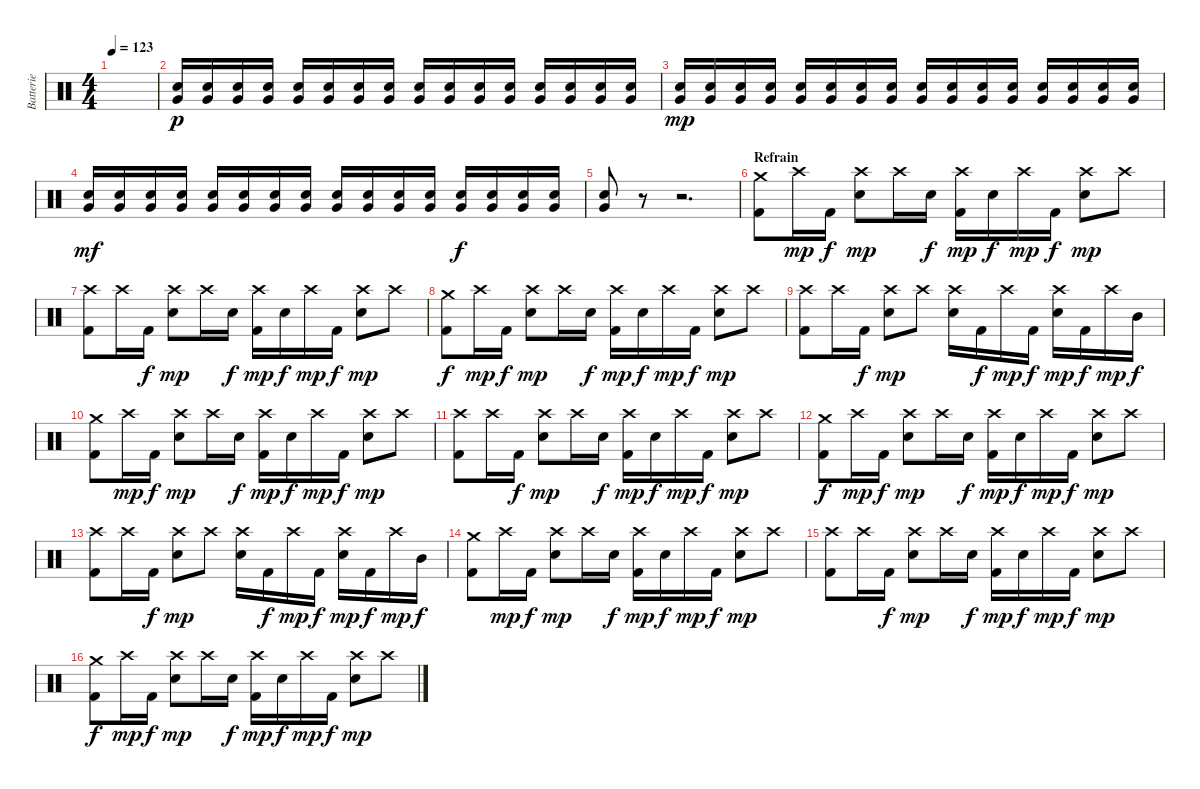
\track ("Batterie" "Batterie") {instrument percussion}
\staff {score}
\articulation defaults
\ts (4 4)
\tempo 123
\clef neutral
\ks c
|
("Snare (hit) 2" "Very Low Tom (hit)").16{dy p} ("Snare (hit) 2" "Very Low Tom (hit)").16 ("Snare (hit) 2" "Very Low Tom (hit)").16 ("Snare (hit) 2" "Very Low Tom (hit)").16 ("Snare (hit) 2" "Very Low Tom (hit)").16 ("Snare (hit) 2" "Very Low Tom (hit)").16 ("Snare (hit) 2" "Very Low Tom (hit)").16 ("Snare (hit) 2" "Very Low Tom (hit)").16 ("Snare (hit) 2" "Very Low Tom (hit)").16 ("Snare (hit) 2" "Very Low Tom (hit)").16 ("Snare (hit) 2" "Very Low Tom (hit)").16 ("Snare (hit) 2" "Very Low Tom (hit)").16 ("Snare (hit) 2" "Very Low Tom (hit)").16 ("Snare (hit) 2" "Very Low Tom (hit)").16 ("Snare (hit) 2" "Very Low Tom (hit)").16 ("Snare (hit) 2" "Very Low Tom (hit)").16 |
("Snare (hit) 2" "Very Low Tom (hit)").16{dy mp} ("Snare (hit) 2" "Very Low Tom (hit)").16 ("Snare (hit) 2" "Very Low Tom (hit)").16 ("Snare (hit) 2" "Very Low Tom (hit)").16 ("Snare (hit) 2" "Very Low Tom (hit)").16 ("Snare (hit) 2" "Very Low Tom (hit)").16 ("Snare (hit) 2" "Very Low Tom (hit)").16 ("Snare (hit) 2" "Very Low Tom (hit)").16 ("Snare (hit) 2" "Very Low Tom (hit)").16 ("Snare (hit) 2" "Very Low Tom (hit)").16 ("Snare (hit) 2" "Very Low Tom (hit)").16 ("Snare (hit) 2" "Very Low Tom (hit)").16 ("Snare (hit) 2" "Very Low Tom (hit)").16 ("Snare (hit) 2" "Very Low Tom (hit)").16 ("Snare (hit) 2" "Very Low Tom (hit)").16 ("Snare (hit) 2" "Very Low Tom (hit)").16 |
("Snare (hit) 2" "Very Low Tom (hit)").16{dy mf} ("Snare (hit) 2" "Very Low Tom (hit)").16 ("Snare (hit) 2" "Very Low Tom (hit)").16 ("Snare (hit) 2" "Very Low Tom (hit)").16 ("Snare (hit) 2" "Very Low Tom (hit)").16 ("Snare (hit) 2" "Very Low Tom (hit)").16 ("Snare (hit) 2" "Very Low Tom (hit)").16 ("Snare (hit) 2" "Very Low Tom (hit)").16 ("Snare (hit) 2" "Very Low Tom (hit)").16 ("Snare (hit) 2" "Very Low Tom (hit)").16 ("Snare (hit) 2" "Very Low Tom (hit)").16 ("Snare (hit) 2" "Very Low Tom (hit)").16 ("Snare (hit) 2" "Very Low Tom (hit)").16{dy f} ("Snare (hit) 2" "Very Low Tom (hit)").16 ("Snare (hit) 2" "Very Low Tom (hit)").16 ("Snare (hit) 2" "Very Low Tom (hit)").16 |
("Snare (hit) 2" "Very Low Tom (hit)").8 r.8 r.2{d} |
\section ("" "Refrain")
("Crash medium (hit)" "Kick (hit) 2").8 "Crash high (hit)".16{dy mp} "Kick (hit) 2".16{dy f} ("Crash high (hit)" "Snare (hit) 2").8{dy mp} "Crash high (hit)".16 "Snare (hit) 2".16{dy f} ("Crash high (hit)" "Kick (hit) 2").16{dy mp} "Snare (hit) 2".16{dy f} "Crash high (hit)".16{dy mp} "Kick (hit) 2".16{dy f} ("Crash high (hit)" "Snare (hit) 2").8{dy mp} "Crash high (hit)".8 |
("Crash high (hit)" "Kick (hit) 2").8 "Crash high (hit)".16 "Kick (hit) 2".16{dy f} ("Crash high (hit)" "Snare (hit) 2").8{dy mp} "Crash high (hit)".16 "Snare (hit) 2".16{dy f} ("Crash high (hit)" "Kick (hit) 2").16{dy mp} "Snare (hit) 2".16{dy f} "Crash high (hit)".16{dy mp} "Kick (hit) 2".16{dy f} ("Crash high (hit)" "Snare (hit) 2").8{dy mp} "Crash high (hit)".8 |
("Crash medium (hit)" "Kick (hit) 2").8{dy f} "Crash high (hit)".16{dy mp} "Kick (hit) 2".16{dy f} ("Crash high (hit)" "Snare (hit) 2").8{dy mp} "Crash high (hit)".16 "Snare (hit) 2".16{dy f} ("Crash high (hit)" "Kick (hit) 2").16{dy mp} "Snare (hit) 2".16{dy f} "Crash high (hit)".16{dy mp} "Kick (hit) 2".16{dy f} ("Crash high (hit)" "Snare (hit) 2").8{dy mp} "Crash high (hit)".8 |
("Crash high (hit)" "Kick (hit) 2").8 "Crash high (hit)".16 "Kick (hit) 2".16{dy f} ("Crash high (hit)" "Snare (hit) 2").8{dy mp} "Crash high (hit)".8 ("Crash high (hit)" "Snare (hit) 2").16 "Kick (hit) 2".16{dy f} "Crash high (hit)".16{dy mp} "Kick (hit) 2".16{dy f} ("Crash high (hit)" "Snare (hit) 2").16{dy mp} "Kick (hit) 2".16{dy f} "Crash high (hit)".16{dy mp} "Mid Tom (hit)".16{dy f} |
("Crash medium (hit)" "Kick (hit) 2").8 "Crash high (hit)".16{dy mp} "Kick (hit) 2".16{dy f} ("Crash high (hit)" "Snare (hit) 2").8{dy mp} "Crash high (hit)".16 "Snare (hit) 2".16{dy f} ("Crash high (hit)" "Kick (hit) 2").16{dy mp} "Snare (hit) 2".16{dy f} "Crash high (hit)".16{dy mp} "Kick (hit) 2".16{dy f} ("Crash high (hit)" "Snare (hit) 2").8{dy mp} "Crash high (hit)".8 |
("Crash high (hit)" "Kick (hit) 2").8 "Crash high (hit)".16 "Kick (hit) 2".16{dy f} ("Crash high (hit)" "Snare (hit) 2").8{dy mp} "Crash high (hit)".16 "Snare (hit) 2".16{dy f} ("Crash high (hit)" "Kick (hit) 2").16{dy mp} "Snare (hit) 2".16{dy f} "Crash high (hit)".16{dy mp} "Kick (hit) 2".16{dy f} ("Crash high (hit)" "Snare (hit) 2").8{dy mp} "Crash high (hit)".8 |
("Crash medium (hit)" "Kick (hit) 2").8{dy f} "Crash high (hit)".16{dy mp} "Kick (hit) 2".16{dy f} ("Crash high (hit)" "Snare (hit) 2").8{dy mp} "Crash high (hit)".16 "Snare (hit) 2".16{dy f} ("Crash high (hit)" "Kick (hit) 2").16{dy mp} "Snare (hit) 2".16{dy f} "Crash high (hit)".16{dy mp} "Kick (hit) 2".16{dy f} ("Crash high (hit)" "Snare (hit) 2").8{dy mp} "Crash high (hit)".8 |
("Crash high (hit)" "Kick (hit) 2").8 "Crash high (hit)".16 "Kick (hit) 2".16{dy f} ("Crash high (hit)" "Snare (hit) 2").8{dy mp} "Crash high (hit)".8 ("Crash high (hit)" "Snare (hit) 2").16 "Kick (hit) 2".16{dy f} "Crash high (hit)".16{dy mp} "Kick (hit) 2".16{dy f} ("Crash high (hit)" "Snare (hit) 2").16{dy mp} "Kick (hit) 2".16{dy f} "Crash high (hit)".16{dy mp} "Mid Tom (hit)".16{dy f} |
("Crash medium (hit)" "Kick (hit) 2").8 "Crash high (hit)".16{dy mp} "Kick (hit) 2".16{dy f} ("Crash high (hit)" "Snare (hit) 2").8{dy mp} "Crash high (hit)".16 "Snare (hit) 2".16{dy f} ("Crash high (hit)" "Kick (hit) 2").16{dy mp} "Snare (hit) 2".16{dy f} "Crash high (hit)".16{dy mp} "Kick (hit) 2".16{dy f} ("Crash high (hit)" "Snare (hit) 2").8{dy mp} "Crash high (hit)".8 |
("Crash high (hit)" "Kick (hit) 2").8 "Crash high (hit)".16 "Kick (hit) 2".16{dy f} ("Crash high (hit)" "Snare (hit) 2").8{dy mp} "Crash high (hit)".16 "Snare (hit) 2".16{dy f} ("Crash high (hit)" "Kick (hit) 2").16{dy mp} "Snare (hit) 2".16{dy f} "Crash high (hit)".16{dy mp} "Kick (hit) 2".16{dy f} ("Crash high (hit)" "Snare (hit) 2").8{dy mp} "Crash high (hit)".8 |
("Crash medium (hit)" "Kick (hit) 2").8{dy f} "Crash high (hit)".16{dy mp} "Kick (hit) 2".16{dy f} ("Crash high (hit)" "Snare (hit) 2").8{dy mp} "Crash high (hit)".16 "Snare (hit) 2".16{dy f} ("Crash high (hit)" "Kick (hit) 2").16{dy mp} "Snare (hit) 2".16{dy f} "Crash high (hit)".16{dy mp} "Kick (hit) 2".16{dy f} ("Crash high (hit)" "Snare (hit) 2").8{dy mp} "Crash high (hit)".8
